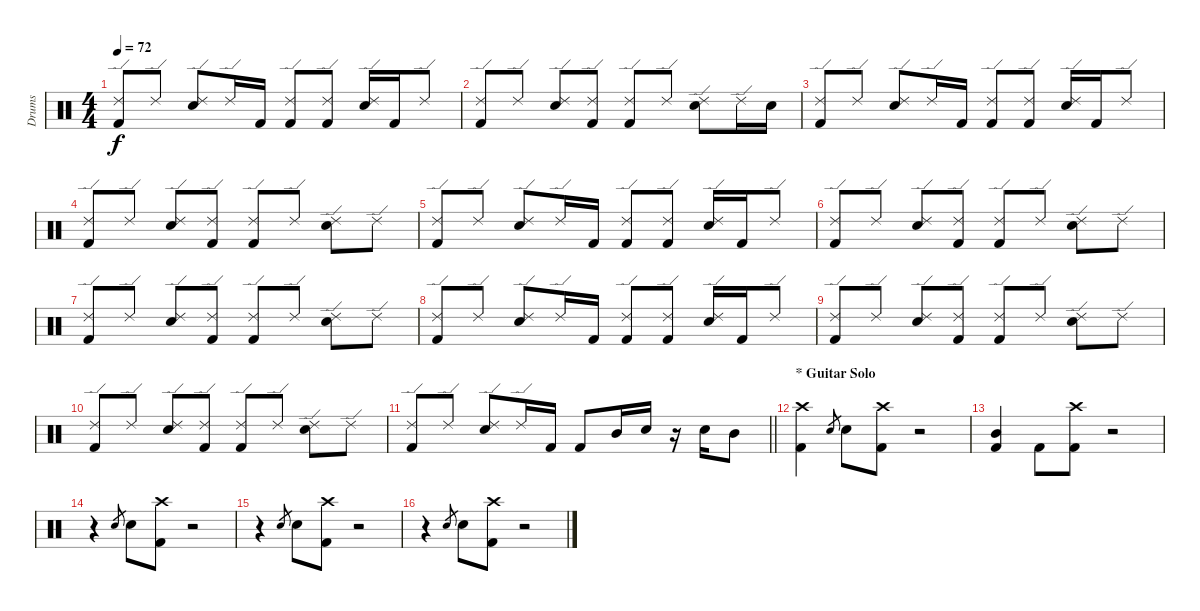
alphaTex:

\track ("Drums" "Drums") {instrument percussion}
\staff {score}
\articulation defaults
\ts (4 4)
\tempo 72
\clef neutral
\ks c
("Ride (edge) 2" "Kick (hit) 2").8{dy f} "Ride (edge) 2".8 ("Ride (edge) 2" "Electric Snare (hit)").8 "Ride (edge) 2".16 "Kick (hit) 2".16 ("Ride (edge) 2" "Kick (hit) 2").8 ("Ride (edge) 2" "Kick (hit) 2").8 ("Ride (edge) 2" "Electric Snare (hit)").16 "Kick (hit) 2".16 "Ride (edge) 2".8 |
("Ride (edge) 2" "Kick (hit) 2").8 "Ride (edge) 2".8 ("Ride (edge) 2" "Electric Snare (hit)").8 ("Ride (edge) 2" "Kick (hit) 2").8 ("Ride (edge) 2" "Kick (hit) 2").8 "Ride (edge) 2".8 ("Ride (edge) 2" "Electric Snare (hit)").8 "Ride (edge) 2".16 "Electric Snare (hit)".16 |
("Ride (edge) 2" "Kick (hit) 2").8 "Ride (edge) 2".8 ("Ride (edge) 2" "Electric Snare (hit)").8 "Ride (edge) 2".16 "Kick (hit) 2".16 ("Ride (edge) 2" "Kick (hit) 2").8 ("Ride (edge) 2" "Kick (hit) 2").8 ("Ride (edge) 2" "Electric Snare (hit)").16 "Kick (hit) 2".16 "Ride (edge) 2".8 |
("Ride (edge) 2" "Kick (hit) 2").8 "Ride (edge) 2".8 ("Ride (edge) 2" "Electric Snare (hit)").8 ("Ride (edge) 2" "Kick (hit) 2").8 ("Ride (edge) 2" "Kick (hit) 2").8 "Ride (edge) 2".8 ("Ride (edge) 2" "Electric Snare (hit)").8 "Ride (edge) 2".8 |
("Ride (edge) 2" "Kick (hit) 2").8 "Ride (edge) 2".8 ("Ride (edge) 2" "Electric Snare (hit)").8 "Ride (edge) 2".16 "Kick (hit) 2".16 ("Ride (edge) 2" "Kick (hit) 2").8 ("Ride (edge) 2" "Kick (hit) 2").8 ("Ride (edge) 2" "Electric Snare (hit)").16 "Kick (hit) 2".16 "Ride (edge) 2".8 |
("Ride (edge) 2" "Kick (hit) 2").8 "Ride (edge) 2".8 ("Ride (edge) 2" "Electric Snare (hit)").8 ("Ride (edge) 2" "Kick (hit) 2").8 ("Ride (edge) 2" "Kick (hit) 2").8 "Ride (edge) 2".8 ("Ride (edge) 2" "Electric Snare (hit)").8 "Ride (edge) 2".8 |
("Ride (edge) 2" "Kick (hit) 2").8 "Ride (edge) 2".8 ("Ride (edge) 2" "Electric Snare (hit)").8 ("Ride (edge) 2" "Kick (hit) 2").8 ("Ride (edge) 2" "Kick (hit) 2").8 "Ride (edge) 2".8 ("Ride (edge) 2" "Electric Snare (hit)").8 "Ride (edge) 2".8 |
("Ride (edge) 2" "Kick (hit) 2").8 "Ride (edge) 2".8 ("Ride (edge) 2" "Electric Snare (hit)").8 "Ride (edge) 2".16 "Kick (hit) 2".16 ("Ride (edge) 2" "Kick (hit) 2").8 ("Ride (edge) 2" "Kick (hit) 2").8 ("Ride (edge) 2" "Electric Snare (hit)").16 "Kick (hit) 2".16 "Ride (edge) 2".8 |
("Ride (edge) 2" "Kick (hit) 2").8 "Ride (edge) 2".8 ("Ride (edge) 2" "Electric Snare (hit)").8 ("Ride (edge) 2" "Kick (hit) 2").8 ("Ride (edge) 2" "Kick (hit) 2").8 "Ride (edge) 2".8 ("Ride (edge) 2" "Electric Snare (hit)").8 "Ride (edge) 2".8 |
("Ride (edge) 2" "Kick (hit) 2").8 "Ride (edge) 2".8 ("Ride (edge) 2" "Electric Snare (hit)").8 ("Ride (edge) 2" "Kick (hit) 2").8 ("Ride (edge) 2" "Kick (hit) 2").8 "Ride (edge) 2".8 ("Ride (edge) 2" "Electric Snare (hit)").8 "Ride (edge) 2".8 |
\barLineRight lightlight
("Ride (edge) 2" "Kick (hit) 2").8 "Ride (edge) 2".8 ("Ride (edge) 2" "Electric Snare (hit)").8 "Ride (edge) 2".16 "Kick (hit) 2".16 "Kick (hit) 2".8 "Mid Tom (hit)".16 "Electric Snare (hit)".16 r.16 "Electric Snare (hit)".16 "Mid Tom (hit)".8 |
\section ("" "* Guitar Solo")
("Crash high (hit)" "Kick (hit) 2").4 "Electric Snare (hit)".8{gr} "Electric Snare (hit)".8 ("Crash high (hit)" "Kick (hit) 2").8 r.2 |
("Mid Tom (hit)" "Kick (hit) 2").4 "Kick (hit) 2".8 ("Crash high (hit)" "Kick (hit) 2").8 r.2 |
r.4 "Electric Snare (hit)".8{gr} "Electric Snare (hit)".8 ("Crash high (hit)" "Kick (hit) 2").8 r.2 |
r.4 "Electric Snare (hit)".8{gr} "Electric Snare (hit)".8 ("Crash high (hit)" "Kick (hit) 2").8 r.2 |
r.4 "Electric Snare (hit)".8{gr} "Electric Snare (hit)".8 ("Crash high (hit)" "Kick (hit) 2").8 r.2
